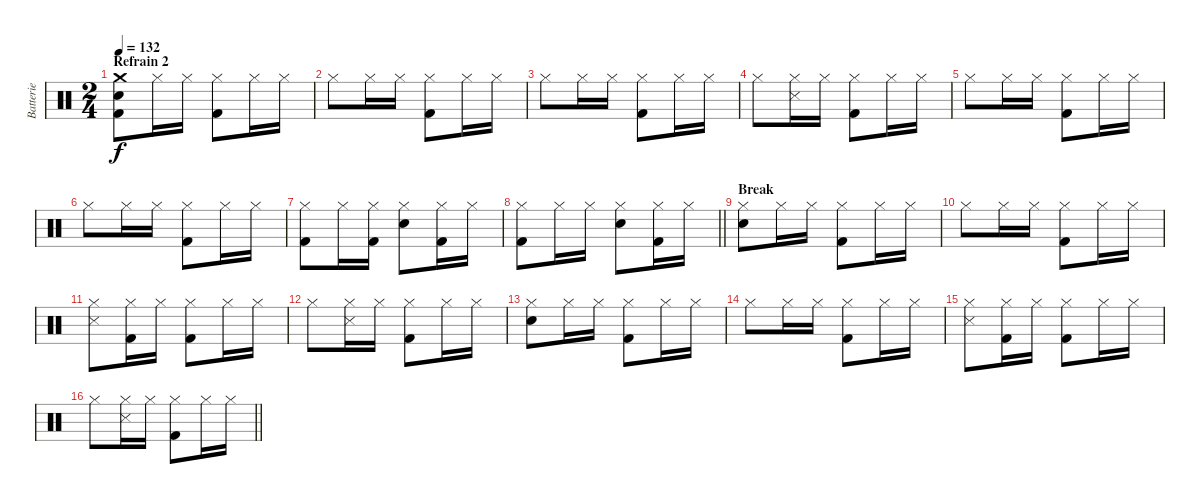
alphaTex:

\track ("Batterie" "Batterie") {instrument percussion}
\staff {score}
\articulation defaults
\ts (2 4)
\section ("" "Refrain 2")
\tempo 132
\clef neutral
\ks c
("Crash medium (hit)" "Snare (hit) 2" "Kick (hit) 2").8{dy f} "Hi-Hat (closed)".16 "Hi-Hat (closed)".16 ("Hi-Hat (closed)" "Kick (hit) 2").8 "Hi-Hat (closed)".16 "Hi-Hat (closed)".16 |
"Hi-Hat (closed)".8 "Hi-Hat (closed)".16 "Hi-Hat (closed)".16 ("Hi-Hat (closed)" "Kick (hit) 2").8 "Hi-Hat (closed)".16 "Hi-Hat (closed)".16 |
"Hi-Hat (closed)".8 "Hi-Hat (closed)".16 "Hi-Hat (closed)".16 ("Hi-Hat (closed)" "Kick (hit) 2").8 "Hi-Hat (closed)".16 "Hi-Hat (closed)".16 |
"Hi-Hat (closed)".8 ("Hi-Hat (closed)" "Snare (side stick) 3").16 "Hi-Hat (closed)".16 ("Hi-Hat (closed)" "Kick (hit) 2").8 "Hi-Hat (closed)".16 "Hi-Hat (closed)".16 |
"Hi-Hat (closed)".8 "Hi-Hat (closed)".16 "Hi-Hat (closed)".16 ("Hi-Hat (closed)" "Kick (hit) 2").8 "Hi-Hat (closed)".16 "Hi-Hat (closed)".16 |
"Hi-Hat (closed)".8 "Hi-Hat (closed)".16 "Hi-Hat (closed)".16 ("Hi-Hat (closed)" "Kick (hit) 2").8 "Hi-Hat (closed)".16 "Hi-Hat (closed)".16 |
("Hi-Hat (closed)" "Kick (hit) 2").8 "Hi-Hat (closed)".16 ("Hi-Hat (closed)" "Kick (hit) 2").16 ("Hi-Hat (closed)" "Snare (hit) 2").8 ("Hi-Hat (closed)" "Kick (hit) 2").16 "Hi-Hat (closed)".16 |
\barLineRight lightlight
("Hi-Hat (closed)" "Kick (hit) 2").8 "Hi-Hat (closed)".16 "Hi-Hat (closed)".16 ("Hi-Hat (closed)" "Snare (hit) 2").8 ("Hi-Hat (closed)" "Kick (hit) 2").16 "Hi-Hat (closed)".16 |
\section ("" "Break")
("Hi-Hat (closed)" "Snare (hit) 2").8 "Hi-Hat (closed)".16 "Hi-Hat (closed)".16 ("Hi-Hat (closed)" "Kick (hit) 2").8 "Hi-Hat (closed)".16 "Hi-Hat (closed)".16 |
"Hi-Hat (closed)".8 "Hi-Hat (closed)".16 "Hi-Hat (closed)".16 ("Hi-Hat (closed)" "Kick (hit) 2").8 "Hi-Hat (closed)".16 "Hi-Hat (closed)".16 |
("Hi-Hat (closed)" "Snare (side stick) 3").8 ("Hi-Hat (closed)" "Kick (hit) 2").16 "Hi-Hat (closed)".16 ("Hi-Hat (closed)" "Kick (hit) 2").8 "Hi-Hat (closed)".16 "Hi-Hat (closed)".16 |
"Hi-Hat (closed)".8 ("Hi-Hat (closed)" "Snare (side stick) 3").16 "Hi-Hat (closed)".16 ("Hi-Hat (closed)" "Kick (hit) 2").8 "Hi-Hat (closed)".16 "Hi-Hat (closed)".16 |
("Hi-Hat (closed)" "Snare (hit) 2").8 "Hi-Hat (closed)".16 "Hi-Hat (closed)".16 ("Hi-Hat (closed)" "Kick (hit) 2").8 "Hi-Hat (closed)".16 "Hi-Hat (closed)".16 |
"Hi-Hat (closed)".8 "Hi-Hat (closed)".16 "Hi-Hat (closed)".16 ("Hi-Hat (closed)" "Kick (hit) 2").8 "Hi-Hat (closed)".16 "Hi-Hat (closed)".16 |
("Hi-Hat (closed)" "Snare (side stick) 3").8 ("Hi-Hat (closed)" "Kick (hit) 2").16 "Hi-Hat (closed)".16 ("Hi-Hat (closed)" "Kick (hit) 2").8 "Hi-Hat (closed)".16 "Hi-Hat (closed)".16 |
\barLineRight lightlight "Hi-Hat (closed)".8
("Hi-Hat (closed)" "Snare (side stick) 3").16 "Hi-Hat (closed)".16 ("Hi-Hat (closed)" "Kick (hit) 2").8 "Hi-Hat (closed)".16 "Hi-Hat (closed)".16
